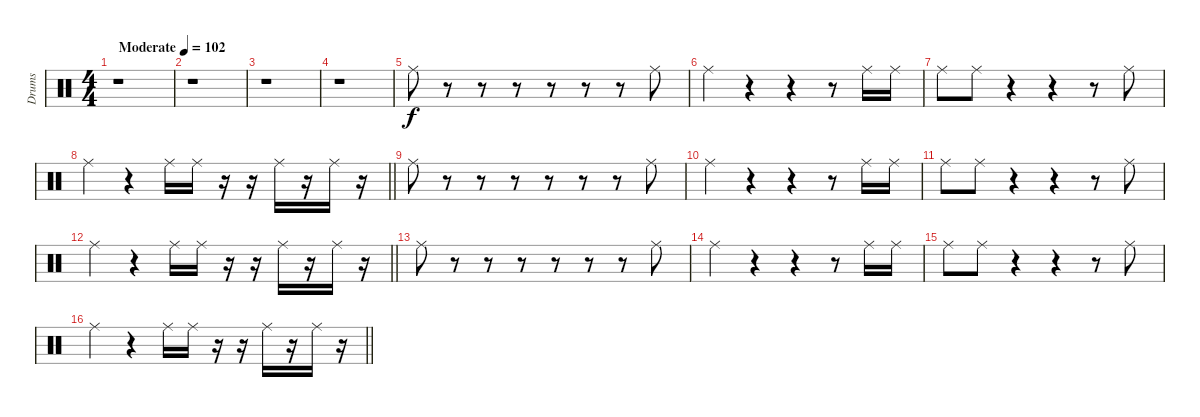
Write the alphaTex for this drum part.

\track ("Drums" "Drums") {instrument percussion}
\staff {score}
\articulation defaults
\ts (4 4)
\tempo (102 "Moderate")
\clef neutral
\ks c
r.1{dy f} |
r.1 |
r.1 |
r.1 |
"Ride (middle)".8 r.8 r.8 r.8 r.8 r.8 r.8 "Ride (middle)".8 |
"Ride (middle)".4 r.4 r.4 r.8 "Ride (middle)".16 "Ride (middle)".16 |
"Ride (middle)".8 "Ride (middle)".8 r.4 r.4 r.8 "Ride (middle)".8 |
\barLineRight lightlight "Ride (middle)".4
r.4 "Ride (middle)".16 "Ride (middle)".16 r.16 r.16 "Ride (middle)".16 r.16 "Ride (middle)".16 r.16 |
"Ride (middle)".8 r.8 r.8 r.8 r.8 r.8 r.8 "Ride (middle)".8 |
"Ride (middle)".4 r.4 r.4 r.8 "Ride (middle)".16 "Ride (middle)".16 |
"Ride (middle)".8 "Ride (middle)".8 r.4 r.4 r.8 "Ride (middle)".8 |
\barLineRight lightlight "Ride (middle)".4
r.4 "Ride (middle)".16 "Ride (middle)".16 r.16 r.16 "Ride (middle)".16 r.16 "Ride (middle)".16 r.16 |
"Ride (middle)".8 r.8 r.8 r.8 r.8 r.8 r.8 "Ride (middle)".8 |
"Ride (middle)".4 r.4 r.4 r.8 "Ride (middle)".16 "Ride (middle)".16 |
"Ride (middle)".8 "Ride (middle)".8 r.4 r.4 r.8 "Ride (middle)".8 |
\barLineRight lightlight "Ride (middle)".4
r.4 "Ride (middle)".16 "Ride (middle)".16 r.16 r.16 "Ride (middle)".16 r.16 "Ride (middle)".16 r.16
